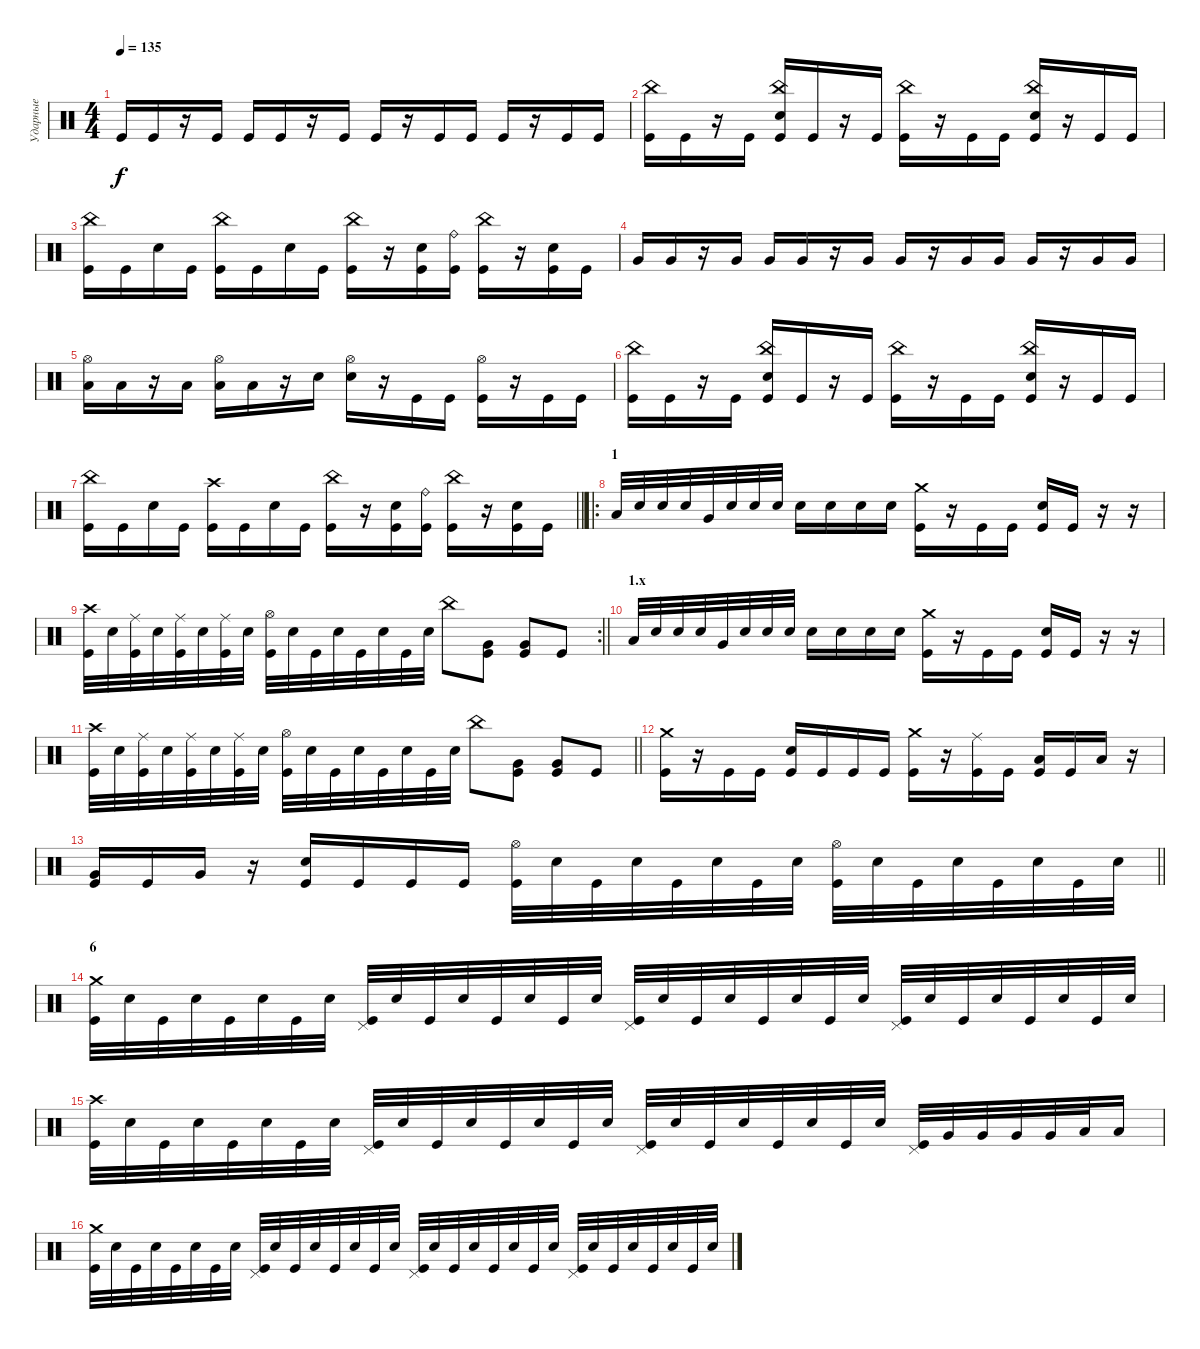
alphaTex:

\track ("Ударные" "Ударные") {instrument percussion}
\staff {score}
\articulation defaults
\ts (4 4)
\tempo 135
\clef neutral
\ks c "Kick (hit)".16{dy f} "Kick (hit)".16
r.16 "Kick (hit)".16 "Kick (hit)".16 "Kick (hit)".16 r.16 "Kick (hit)".16 "Kick (hit)".16 r.16 "Kick (hit)".16 "Kick (hit)".16 "Kick (hit)".16 r.16 "Kick (hit)".16 "Kick (hit)".16 |
("China (hit)" "Kick (hit)").16 "Kick (hit)".16 r.16 "Kick (hit)".16 ("China (hit)" "Electric Snare (hit)" "Kick (hit)").16 "Kick (hit)".16 r.16 "Kick (hit)".16 ("China (hit)" "Kick (hit)").16 r.16 "Kick (hit)".16 "Kick (hit)".16 ("China (hit)" "Electric Snare (hit)" "Kick (hit)").16 r.16 "Kick (hit)".16 "Kick (hit)".16 |
("China (hit)" "Kick (hit)").16 "Kick (hit)".16 "Electric Snare (hit)".16 "Kick (hit)".16 ("China (hit)" "Kick (hit)").16 "Kick (hit)".16 "Electric Snare (hit)".16 "Kick (hit)".16 ("China (hit)" "Kick (hit)").16 r.16 ("Electric Snare (hit)" "Kick (hit)").16 ("Ride (bell)" "Kick (hit)").16 ("China (hit)" "Kick (hit)").16 r.16 ("Electric Snare (hit)" "Kick (hit)").16 "Kick (hit)".16 |
"Very Low Tom (hit)".16 "Very Low Tom (hit)".16 r.16 "Very Low Tom (hit)".16 "Very Low Tom (hit)".16 "Very Low Tom (hit)".16 r.16 "Very Low Tom (hit)".16 "Very Low Tom (hit)".16 r.16 "Very Low Tom (hit)".16 "Very Low Tom (hit)".16 "Very Low Tom (hit)".16 r.16 "Very Low Tom (hit)".16 "Very Low Tom (hit)".16 |
("Hi-Hat (open)" "Low Floor Tom (hit)").16 "Low Floor Tom (hit)".16 r.16 "Low Floor Tom (hit)".16 ("Hi-Hat (open)" "Low Floor Tom (hit)").16 "Low Floor Tom (hit)".16 r.16 "Electric Snare (hit)".16 ("Hi-Hat (open)" "Electric Snare (hit)").16 r.16 "Kick (hit)".16 "Kick (hit)".16 ("Hi-Hat (open)" "Kick (hit)").16 r.16 "Kick (hit)".16 "Kick (hit)".16 |
("China (hit)" "Kick (hit)").16 "Kick (hit)".16 r.16 "Kick (hit)".16 ("China (hit)" "Electric Snare (hit)" "Kick (hit)").16 "Kick (hit)".16 r.16 "Kick (hit)".16 ("China (hit)" "Kick (hit)").16 r.16 "Kick (hit)".16 "Kick (hit)".16 ("China (hit)" "Electric Snare (hit)" "Kick (hit)").16 r.16 "Kick (hit)".16 "Kick (hit)".16 |
\barLineRight lightlight
("China (hit)" "Kick (hit)").16 "Kick (hit)".16 "Electric Snare (hit)".16 "Kick (hit)".16 ("Crash high (hit)" "Kick (hit)").16 "Kick (hit)".16 "Electric Snare (hit)".16 "Kick (hit)".16 ("China (hit)" "Kick (hit)").16 r.16 ("Electric Snare (hit)" "Kick (hit)").16 ("Ride (bell)" "Kick (hit)").16 ("China (hit)" "Kick (hit)").16 r.16 ("Electric Snare (hit)" "Kick (hit)").16 "Kick (hit)".16 |
\ro
\section ("" "1")
"Low Tom (hit)".32 "Electric Snare (hit)".32 "Electric Snare (hit)".32 "Electric Snare (hit)".32 "Very Low Tom (hit)".32 "Electric Snare (hit)".32 "Electric Snare (hit)".32 "Electric Snare (hit)".32 "Electric Snare (hit)".16 "Electric Snare (hit)".16 "Electric Snare (hit)".16 "Electric Snare (hit)".16 ("Crash medium (hit)" "Kick (hit)").16 r.16 "Kick (hit)".16 "Kick (hit)".16 ("Electric Snare (hit)" "Kick (hit)").16 "Kick (hit)".16 r.16 r.16 |
\rc 2
\barLineRight lightlight
("Crash high (hit)" "Kick (hit)").32 "Electric Snare (hit)".32 ("Ride (middle)" "Kick (hit)").32 "Electric Snare (hit)".32 ("Ride (middle)" "Kick (hit)").32 "Electric Snare (hit)".32 ("Ride (middle)" "Kick (hit)").32 "Electric Snare (hit)".32 ("Hi-Hat (open)" "Kick (hit)").32 "Electric Snare (hit)".32 "Kick (hit)".32 "Electric Snare (hit)".32 "Kick (hit)".32 "Electric Snare (hit)".32 "Kick (hit)".32 "Electric Snare (hit)".32 "China (hit)".8 ("Very Low Tom (hit)" "Kick (hit)").8 ("Very Low Tom (hit)" "Kick (hit)").8 "Kick (hit)".8 |
\section ("" "1.x")
"Low Tom (hit)".32 "Electric Snare (hit)".32 "Electric Snare (hit)".32 "Electric Snare (hit)".32 "Very Low Tom (hit)".32 "Electric Snare (hit)".32 "Electric Snare (hit)".32 "Electric Snare (hit)".32 "Electric Snare (hit)".16 "Electric Snare (hit)".16 "Electric Snare (hit)".16 "Electric Snare (hit)".16 ("Crash medium (hit)" "Kick (hit)").16 r.16 "Kick (hit)".16 "Kick (hit)".16 ("Electric Snare (hit)" "Kick (hit)").16 "Kick (hit)".16 r.16 r.16 |
\barLineRight lightlight
("Crash high (hit)" "Kick (hit)").32 "Electric Snare (hit)".32 ("Ride (middle)" "Kick (hit)").32 "Electric Snare (hit)".32 ("Ride (middle)" "Kick (hit)").32 "Electric Snare (hit)".32 ("Ride (middle)" "Kick (hit)").32 "Electric Snare (hit)".32 ("Hi-Hat (open)" "Kick (hit)").32 "Electric Snare (hit)".32 "Kick (hit)".32 "Electric Snare (hit)".32 "Kick (hit)".32 "Electric Snare (hit)".32 "Kick (hit)".32 "Electric Snare (hit)".32 "China (hit)".8 ("Very Low Tom (hit)" "Kick (hit)").8 ("Very Low Tom (hit)" "Kick (hit)").8 "Kick (hit)".8 |
("Crash medium (hit)" "Kick (hit)").16 r.16 "Kick (hit)".16 "Kick (hit)".16 ("Electric Snare (hit)" "Kick (hit)").16 "Kick (hit)".16 "Kick (hit)".16 "Kick (hit)".16 ("Crash medium (hit)" "Kick (hit)").16 r.16 ("Ride (middle)" "Kick (hit)").16 "Kick (hit)".16 ("Low Tom (hit)" "Kick (hit)").16 "Kick (hit)".16 "Low Tom (hit)".16 r.16 |
\barLineRight lightlight
("Very Low Tom (hit)" "Kick (hit)").16 "Kick (hit)".16 "Very Low Tom (hit)".16 r.16 ("Electric Snare (hit)" "Kick (hit)").16 "Kick (hit)".16 "Kick (hit)".16 "Kick (hit)".16 ("Hi-Hat (open)" "Kick (hit)").32 "Electric Snare (hit)".32 "Kick (hit)".32 "Electric Snare (hit)".32 "Kick (hit)".32 "Electric Snare (hit)".32 "Kick (hit)".32 "Electric Snare (hit)".32 ("Hi-Hat (open)" "Kick (hit)").32 "Electric Snare (hit)".32 "Kick (hit)".32 "Electric Snare (hit)".32 "Kick (hit)".32 "Electric Snare (hit)".32 "Kick (hit)".32 "Electric Snare (hit)".32 |
\section ("" "6")
("Crash medium (hit)" "Kick (hit)").32 "Electric Snare (hit)".32 "Kick (hit)".32 "Electric Snare (hit)".32 "Kick (hit)".32 "Electric Snare (hit)".32 "Kick (hit)".32 "Electric Snare (hit)".32 ("Pedal Hi-Hat (hit)" "Kick (hit)").32 "Electric Snare (hit)".32 "Kick (hit)".32 "Electric Snare (hit)".32 "Kick (hit)".32 "Electric Snare (hit)".32 "Kick (hit)".32 "Electric Snare (hit)".32 ("Pedal Hi-Hat (hit)" "Kick (hit)").32 "Electric Snare (hit)".32 "Kick (hit)".32 "Electric Snare (hit)".32 "Kick (hit)".32 "Electric Snare (hit)".32 "Kick (hit)".32 "Electric Snare (hit)".32 ("Pedal Hi-Hat (hit)" "Kick (hit)").32 "Electric Snare (hit)".32 "Kick (hit)".32 "Electric Snare (hit)".32 "Kick (hit)".32 "Electric Snare (hit)".32 "Kick (hit)".32 "Electric Snare (hit)".32 |
("Crash high (hit)" "Kick (hit)").32 "Electric Snare (hit)".32 "Kick (hit)".32 "Electric Snare (hit)".32 "Kick (hit)".32 "Electric Snare (hit)".32 "Kick (hit)".32 "Electric Snare (hit)".32 ("Pedal Hi-Hat (hit)" "Kick (hit)").32 "Electric Snare (hit)".32 "Kick (hit)".32 "Electric Snare (hit)".32 "Kick (hit)".32 "Electric Snare (hit)".32 "Kick (hit)".32 "Electric Snare (hit)".32 ("Pedal Hi-Hat (hit)" "Kick (hit)").32 "Electric Snare (hit)".32 "Kick (hit)".32 "Electric Snare (hit)".32 "Kick (hit)".32 "Electric Snare (hit)".32 "Kick (hit)".32 "Electric Snare (hit)".32 ("Pedal Hi-Hat (hit)" "Kick (hit)").32 "Very Low Tom (hit)".32 "Very Low Tom (hit)".32 "Very Low Tom (hit)".32 "Very Low Tom (hit)".32 "Low Floor Tom (hit)".32 "Low Floor Tom (hit)".16 |
("Crash medium (hit)" "Kick (hit)").32 "Electric Snare (hit)".32 "Kick (hit)".32 "Electric Snare (hit)".32 "Kick (hit)".32 "Electric Snare (hit)".32 "Kick (hit)".32 "Electric Snare (hit)".32 ("Pedal Hi-Hat (hit)" "Kick (hit)").32 "Electric Snare (hit)".32 "Kick (hit)".32 "Electric Snare (hit)".32 "Kick (hit)".32 "Electric Snare (hit)".32 "Kick (hit)".32 "Electric Snare (hit)".32 ("Pedal Hi-Hat (hit)" "Kick (hit)").32 "Electric Snare (hit)".32 "Kick (hit)".32 "Electric Snare (hit)".32 "Kick (hit)".32 "Electric Snare (hit)".32 "Kick (hit)".32 "Electric Snare (hit)".32 ("Pedal Hi-Hat (hit)" "Kick (hit)").32 "Electric Snare (hit)".32 "Kick (hit)".32 "Electric Snare (hit)".32 "Kick (hit)".32 "Electric Snare (hit)".32 "Kick (hit)".32 "Electric Snare (hit)".32
